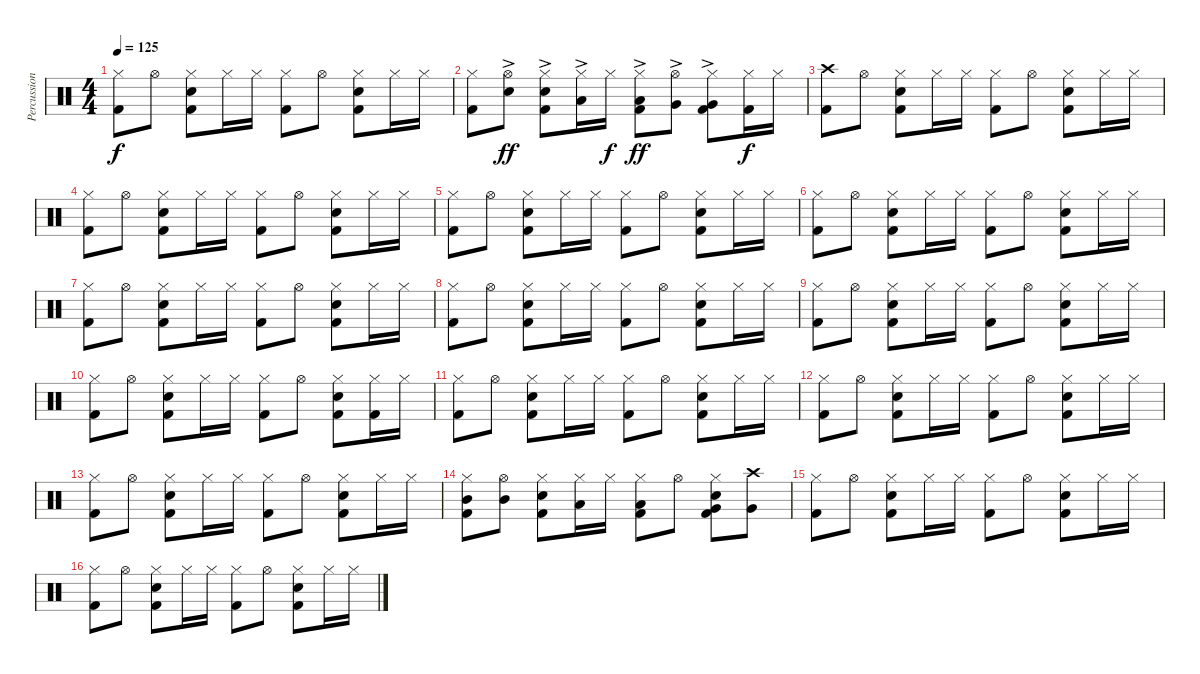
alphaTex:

\track ("Percussion" "Percussion") {instrument percussion}
\staff {score}
\articulation defaults
\ts (4 4)
\tempo 125
\clef neutral
\ks c
("Hi-Hat (closed)" "Kick (hit) 2").8{dy f} "Hi-Hat (open)".8 ("Hi-Hat (closed)" "Electric Snare (hit)" "Kick (hit) 2").8 "Hi-Hat (closed)".16 "Hi-Hat (closed)".16 ("Hi-Hat (closed)" "Kick (hit) 2").8 "Hi-Hat (open)".8 ("Hi-Hat (closed)" "Electric Snare (hit)" "Kick (hit) 2").8 "Hi-Hat (closed)".16 "Hi-Hat (closed)".16 |
("Hi-Hat (closed)" "Kick (hit) 2").8 ("Hi-Hat (open)" "Electric Snare (hit)"{ac}).8{dy ff} ("Hi-Hat (closed)" "Electric Snare (hit)"{ac} "Kick (hit) 2").8 ("Hi-Hat (closed)" "Low Tom (hit)"{ac}).16 "Hi-Hat (closed)".16{dy f} ("Hi-Hat (closed)" "Low Tom (hit)"{ac} "Kick (hit) 2").8{dy ff} ("Hi-Hat (open)" "Very Low Tom (hit)"{ac}).8 ("Hi-Hat (closed)" "Very Low Tom (hit)"{ac} "Kick (hit) 2").8 ("Hi-Hat (closed)" "Kick (hit) 2").16{dy f} "Hi-Hat (closed)".16 |
("Crash high (hit)" "Kick (hit) 2").8 "Hi-Hat (open)".8 ("Hi-Hat (closed)" "Electric Snare (hit)" "Kick (hit) 2").8 "Hi-Hat (closed)".16 "Hi-Hat (closed)".16 ("Hi-Hat (closed)" "Kick (hit) 2").8 "Hi-Hat (open)".8 ("Hi-Hat (closed)" "Electric Snare (hit)" "Kick (hit) 2").8 "Hi-Hat (closed)".16 "Hi-Hat (closed)".16 |
("Hi-Hat (closed)" "Kick (hit) 2").8 "Hi-Hat (open)".8 ("Hi-Hat (closed)" "Electric Snare (hit)" "Kick (hit) 2").8 "Hi-Hat (closed)".16 "Hi-Hat (closed)".16 ("Hi-Hat (closed)" "Kick (hit) 2").8 "Hi-Hat (open)".8 ("Hi-Hat (closed)" "Electric Snare (hit)" "Kick (hit) 2").8 "Hi-Hat (closed)".16 "Hi-Hat (closed)".16 |
("Hi-Hat (closed)" "Kick (hit) 2").8 "Hi-Hat (open)".8 ("Hi-Hat (closed)" "Electric Snare (hit)" "Kick (hit) 2").8 "Hi-Hat (closed)".16 "Hi-Hat (closed)".16 ("Hi-Hat (closed)" "Kick (hit) 2").8 "Hi-Hat (open)".8 ("Hi-Hat (closed)" "Electric Snare (hit)" "Kick (hit) 2").8 "Hi-Hat (closed)".16 "Hi-Hat (closed)".16 |
("Hi-Hat (closed)" "Kick (hit) 2").8 "Hi-Hat (open)".8 ("Hi-Hat (closed)" "Electric Snare (hit)" "Kick (hit) 2").8 "Hi-Hat (closed)".16 "Hi-Hat (closed)".16 ("Hi-Hat (closed)" "Kick (hit) 2").8 "Hi-Hat (open)".8 ("Hi-Hat (closed)" "Electric Snare (hit)" "Kick (hit) 2").8 "Hi-Hat (closed)".16 "Hi-Hat (closed)".16 |
("Hi-Hat (closed)" "Kick (hit) 2").8 "Hi-Hat (open)".8 ("Hi-Hat (closed)" "Electric Snare (hit)" "Kick (hit) 2").8 "Hi-Hat (closed)".16 "Hi-Hat (closed)".16 ("Hi-Hat (closed)" "Kick (hit) 2").8 "Hi-Hat (open)".8 ("Hi-Hat (closed)" "Electric Snare (hit)" "Kick (hit) 2").8 "Hi-Hat (closed)".16 "Hi-Hat (closed)".16 |
("Hi-Hat (closed)" "Kick (hit) 2").8 "Hi-Hat (open)".8 ("Hi-Hat (closed)" "Electric Snare (hit)" "Kick (hit) 2").8 "Hi-Hat (closed)".16 "Hi-Hat (closed)".16 ("Hi-Hat (closed)" "Kick (hit) 2").8 "Hi-Hat (open)".8 ("Hi-Hat (closed)" "Electric Snare (hit)" "Kick (hit) 2").8 "Hi-Hat (closed)".16 "Hi-Hat (closed)".16 |
("Hi-Hat (closed)" "Kick (hit) 2").8 "Hi-Hat (open)".8 ("Hi-Hat (closed)" "Electric Snare (hit)" "Kick (hit) 2").8 "Hi-Hat (closed)".16 "Hi-Hat (closed)".16 ("Hi-Hat (closed)" "Kick (hit) 2").8 "Hi-Hat (open)".8 ("Hi-Hat (closed)" "Electric Snare (hit)" "Kick (hit) 2").8 "Hi-Hat (closed)".16 "Hi-Hat (closed)".16 |
("Hi-Hat (closed)" "Kick (hit) 2").8 "Hi-Hat (open)".8 ("Hi-Hat (closed)" "Electric Snare (hit)" "Kick (hit) 2").8 "Hi-Hat (closed)".16 "Hi-Hat (closed)".16 ("Hi-Hat (closed)" "Kick (hit) 2").8 "Hi-Hat (open)".8 ("Hi-Hat (closed)" "Electric Snare (hit)" "Kick (hit) 2").8 ("Hi-Hat (closed)" "Kick (hit) 2").16 "Hi-Hat (closed)".16 |
("Hi-Hat (closed)" "Kick (hit) 2").8 "Hi-Hat (open)".8 ("Hi-Hat (closed)" "Electric Snare (hit)" "Kick (hit) 2").8 "Hi-Hat (closed)".16 "Hi-Hat (closed)".16 ("Hi-Hat (closed)" "Kick (hit) 2").8 "Hi-Hat (open)".8 ("Hi-Hat (closed)" "Electric Snare (hit)" "Kick (hit) 2").8 "Hi-Hat (closed)".16 "Hi-Hat (closed)".16 |
("Hi-Hat (closed)" "Kick (hit) 2").8 "Hi-Hat (open)".8 ("Hi-Hat (closed)" "Electric Snare (hit)" "Kick (hit) 2").8 "Hi-Hat (closed)".16 "Hi-Hat (closed)".16 ("Hi-Hat (closed)" "Kick (hit) 2").8 "Hi-Hat (open)".8 ("Hi-Hat (closed)" "Electric Snare (hit)" "Kick (hit) 2").8 "Hi-Hat (closed)".16 "Hi-Hat (closed)".16 |
("Hi-Hat (closed)" "Kick (hit) 2").8 "Hi-Hat (open)".8 ("Hi-Hat (closed)" "Electric Snare (hit)" "Kick (hit) 2").8 "Hi-Hat (closed)".16 "Hi-Hat (closed)".16 ("Hi-Hat (closed)" "Kick (hit) 2").8 "Hi-Hat (open)".8 ("Hi-Hat (closed)" "Electric Snare (hit)" "Kick (hit) 2").8 "Hi-Hat (closed)".16 "Hi-Hat (closed)".16 |
("Hi-Hat (closed)" "Mid Tom (hit)" "Kick (hit) 2").8 ("Hi-Hat (open)" "Mid Tom (hit)").8 ("Hi-Hat (closed)" "Electric Snare (hit)" "Kick (hit) 2").8 ("Hi-Hat (closed)" "Low Tom (hit)").16 "Hi-Hat (closed)".16 ("Hi-Hat (closed)" "Low Tom (hit)" "Kick (hit) 2").8 "Hi-Hat (open)".8 ("Hi-Hat (closed)" "Very Low Tom (hit)" "Electric Snare (hit)" "Kick (hit) 2").8 ("Crash high (hit)" "Very Low Tom (hit)").8 |
("Hi-Hat (closed)" "Kick (hit) 2").8 "Hi-Hat (open)".8 ("Hi-Hat (closed)" "Electric Snare (hit)" "Kick (hit) 2").8 "Hi-Hat (closed)".16 "Hi-Hat (closed)".16 ("Hi-Hat (closed)" "Kick (hit) 2").8 "Hi-Hat (open)".8 ("Hi-Hat (closed)" "Electric Snare (hit)" "Kick (hit) 2").8 "Hi-Hat (closed)".16 "Hi-Hat (closed)".16 |
("Hi-Hat (closed)" "Kick (hit) 2").8 "Hi-Hat (open)".8 ("Hi-Hat (closed)" "Electric Snare (hit)" "Kick (hit) 2").8 "Hi-Hat (closed)".16 "Hi-Hat (closed)".16 ("Hi-Hat (closed)" "Kick (hit) 2").8 "Hi-Hat (open)".8 ("Hi-Hat (closed)" "Electric Snare (hit)" "Kick (hit) 2").8 "Hi-Hat (closed)".16 "Hi-Hat (closed)".16
